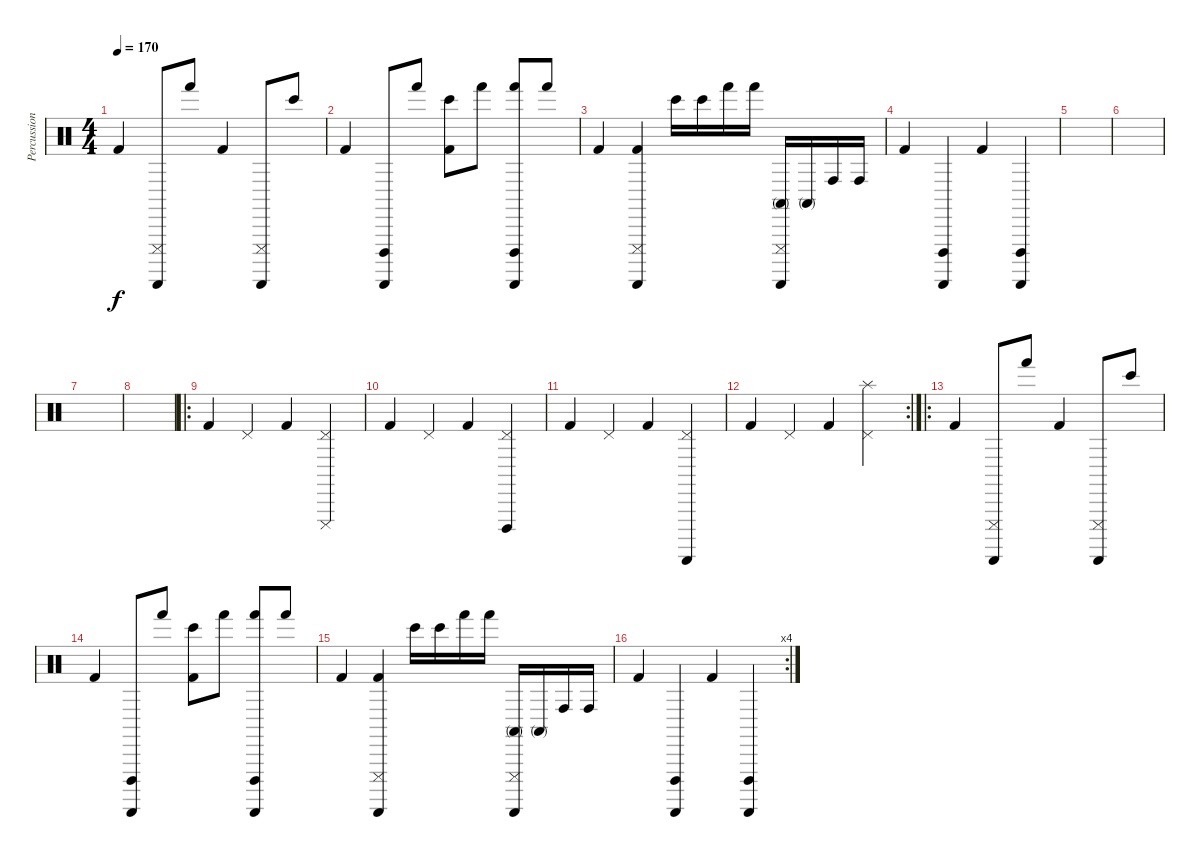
\track ("Percussion" "Percussion") {instrument percussion}
\staff {score}
\articulation defaults
\ts (4 4)
\tempo 170
\clef neutral
\ks c "Kick (hit) 2".4{dy f}
("Guiro (scrap-return)" "Cuica (mute)").8 "Hand (hit)".8 "Kick (hit) 2".4 ("Guiro (scrap-return)" "Cuica (mute)").8 "Bongo High (hit)".8 |
"Kick (hit) 2".4 ("Guiro (scrap-return)" "Cuica (open)").8 "Hand (hit)".8 ("Kick (hit) 2" "Bongo High (hit)").8 "Hand (hit)".8 ("Hand (hit)" "Guiro (scrap-return)" "Cuica (open)").8 "Hand (hit)".8 |
"Kick (hit) 2".4 ("Kick (hit) 2" "Guiro (scrap-return)" "Cuica (mute)").4 "Bongo High (hit)".16 "Bongo High (hit)".16 "Hand (hit)".16 "Hand (hit)".16 ("Conga high (mute)" "Guiro (scrap-return)" "Cuica (mute)").16 "Conga high (mute)".16 "Conga high (hit)".16 "Conga high (hit)".16 |
"Kick (hit) 2".4 ("Guiro (scrap-return)" "Cuica (open)").4 "Kick (hit) 2".4 ("Guiro (scrap-return)" "Cuica (open)").4 |
|
|
|
|
\ro "Kick (hit) 2".4 "Pedal Hi-Hat (hit)".4 "Kick (hit) 2".4
("Pedal Hi-Hat (hit)" "Cuica (mute)").4 |
"Kick (hit) 2".4 "Pedal Hi-Hat (hit)".4 "Kick (hit) 2".4 ("Pedal Hi-Hat (hit)" "Cuica (open)").4 |
"Kick (hit) 2".4 "Pedal Hi-Hat (hit)".4 "Kick (hit) 2".4 ("Pedal Hi-Hat (hit)" "Guiro (scrap-return)").4 |
\rc 2 "Kick (hit) 2".4 "Pedal Hi-Hat (hit)".4 "Kick (hit) 2".4
("Pedal Hi-Hat (hit)" "Splash (hit)").4 |
\ro "Kick (hit) 2".4
("Guiro (scrap-return)" "Cuica (mute)").8 "Hand (hit)".8 "Kick (hit) 2".4 ("Guiro (scrap-return)" "Cuica (mute)").8 "Bongo High (hit)".8 |
"Kick (hit) 2".4 ("Guiro (scrap-return)" "Cuica (open)").8 "Hand (hit)".8 ("Kick (hit) 2" "Bongo High (hit)").8 "Hand (hit)".8 ("Hand (hit)" "Guiro (scrap-return)" "Cuica (open)").8 "Hand (hit)".8 |
"Kick (hit) 2".4 ("Kick (hit) 2" "Guiro (scrap-return)" "Cuica (mute)").4 "Bongo High (hit)".16 "Bongo High (hit)".16 "Hand (hit)".16 "Hand (hit)".16 ("Conga high (mute)" "Guiro (scrap-return)" "Cuica (mute)").16 "Conga high (mute)".16 "Conga high (hit)".16 "Conga high (hit)".16 |
\rc 4 "Kick (hit) 2".4
("Guiro (scrap-return)" "Cuica (open)").4 "Kick (hit) 2".4 ("Guiro (scrap-return)" "Cuica (open)").4
